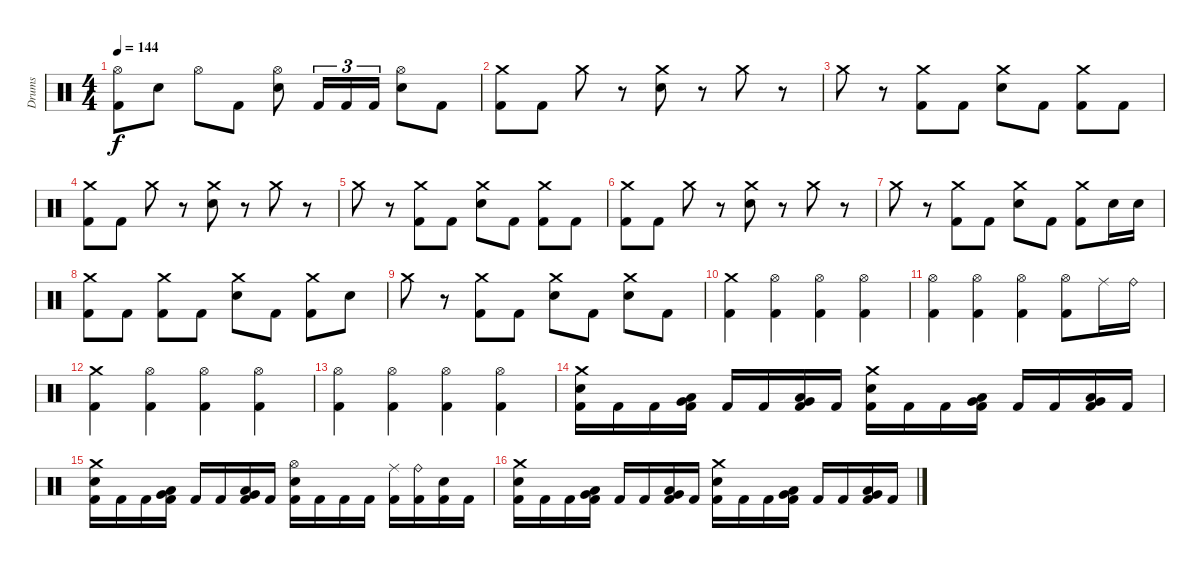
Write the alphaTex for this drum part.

\track ("Drums" "Drums") {instrument percussion}
\staff {score}
\articulation defaults
\ts (4 4)
\tempo 144
\clef neutral
\ks c
("Hi-Hat (open)" "Kick (hit) 2").8{dy f} "Electric Snare (hit)".8 "Hi-Hat (open)".8 "Kick (hit) 2".8 ("Hi-Hat (open)" "Electric Snare (hit)").8 "Kick (hit) 2".16{tu (3 2)} "Kick (hit) 2".16{tu (3 2)} "Kick (hit) 2".16{tu (3 2)} ("Hi-Hat (open)" "Electric Snare (hit)").8 "Kick (hit) 2".8 |
("Crash medium (hit)" "Kick (hit) 2").8 "Kick (hit) 2".8 "Crash medium (hit)".8 r.8 ("Crash medium (hit)" "Electric Snare (hit)").8 r.8 "Crash medium (hit)".8 r.8 |
"Crash medium (hit)".8 r.8 ("Crash medium (hit)" "Kick (hit) 2").8 "Kick (hit) 2".8 ("Crash medium (hit)" "Electric Snare (hit)").8 "Kick (hit) 2".8 ("Crash medium (hit)" "Kick (hit) 2").8 "Kick (hit) 2".8 |
("Crash medium (hit)" "Kick (hit) 2").8 "Kick (hit) 2".8 "Crash medium (hit)".8 r.8 ("Crash medium (hit)" "Electric Snare (hit)").8 r.8 "Crash medium (hit)".8 r.8 |
"Crash medium (hit)".8 r.8 ("Crash medium (hit)" "Kick (hit) 2").8 "Kick (hit) 2".8 ("Crash medium (hit)" "Electric Snare (hit)").8 "Kick (hit) 2".8 ("Crash medium (hit)" "Kick (hit) 2").8 "Kick (hit) 2".8 |
("Crash medium (hit)" "Kick (hit) 2").8 "Kick (hit) 2".8 "Crash medium (hit)".8 r.8 ("Crash medium (hit)" "Electric Snare (hit)").8 r.8 "Crash medium (hit)".8 r.8 |
"Crash medium (hit)".8 r.8 ("Crash medium (hit)" "Kick (hit) 2").8 "Kick (hit) 2".8 ("Crash medium (hit)" "Electric Snare (hit)").8 "Kick (hit) 2".8 ("Crash medium (hit)" "Kick (hit) 2").8 "Electric Snare (hit)".16 "Electric Snare (hit)".16 |
("Crash medium (hit)" "Kick (hit) 2").8 "Kick (hit) 2".8 ("Crash medium (hit)" "Kick (hit) 2").8 "Kick (hit) 2".8 ("Crash medium (hit)" "Electric Snare (hit)").8 "Kick (hit) 2".8 ("Crash medium (hit)" "Kick (hit) 2").8 "Electric Snare (hit)".8 |
"Crash medium (hit)".8 r.8 ("Crash medium (hit)" "Kick (hit) 2").8 "Kick (hit) 2".8 ("Crash medium (hit)" "Electric Snare (hit)").8 "Kick (hit) 2".8 ("Crash medium (hit)" "Electric Snare (hit)").8 "Kick (hit) 2".8 |
("Crash medium (hit)" "Kick (hit) 2").4 ("Hi-Hat (open)" "Kick (hit) 2").4 ("Hi-Hat (open)" "Kick (hit) 2").4 ("Hi-Hat (open)" "Kick (hit) 2").4 |
("Hi-Hat (open)" "Kick (hit) 2").4 ("Hi-Hat (open)" "Kick (hit) 2").4 ("Hi-Hat (open)" "Kick (hit) 2").4 ("Hi-Hat (open)" "Kick (hit) 2").8 "Ride (middle)".16 "Ride (bell)".16 |
("Crash medium (hit)" "Kick (hit) 2").4 ("Hi-Hat (open)" "Kick (hit) 2").4 ("Hi-Hat (open)" "Kick (hit) 2").4 ("Hi-Hat (open)" "Kick (hit) 2").4 |
("Hi-Hat (open)" "Kick (hit) 2").4 ("Hi-Hat (open)" "Kick (hit) 2").4 ("Hi-Hat (open)" "Kick (hit) 2").4 ("Hi-Hat (open)" "Kick (hit) 2").4 |
("Crash medium (hit)" "Electric Snare (hit)" "Kick (hit) 2").16 "Kick (hit) 2".16 "Kick (hit) 2".16 ("Very Low Tom (hit)" "Low Tom (hit)" "Kick (hit) 2").16 "Kick (hit) 2".16 "Kick (hit) 2".16 ("Low Floor Tom (hit)" "Very Low Tom (hit)" "Kick (hit) 2").16 "Kick (hit) 2".16 ("Crash medium (hit)" "Electric Snare (hit)" "Kick (hit) 2").16 "Kick (hit) 2".16 "Kick (hit) 2".16 ("Very Low Tom (hit)" "Low Tom (hit)" "Kick (hit) 2").16 "Kick (hit) 2".16 "Kick (hit) 2".16 ("Low Floor Tom (hit)" "Very Low Tom (hit)" "Kick (hit) 2").16 "Kick (hit) 2".16 |
("Crash medium (hit)" "Electric Snare (hit)" "Kick (hit) 2").16 "Kick (hit) 2".16 "Kick (hit) 2".16 ("Very Low Tom (hit)" "Low Tom (hit)" "Kick (hit) 2").16 "Kick (hit) 2".16 "Kick (hit) 2".16 ("Low Floor Tom (hit)" "Very Low Tom (hit)" "Kick (hit) 2").16 "Kick (hit) 2".16 ("Hi-Hat (open)" "Electric Snare (hit)" "Kick (hit) 2").16 "Kick (hit) 2".16 "Kick (hit) 2".16 "Kick (hit) 2".16 ("Ride (middle)" "Kick (hit) 2").16 ("Ride (bell)" "Kick (hit) 2").16 ("Electric Snare (hit)" "Kick (hit) 2").16 "Kick (hit) 2".16 |
("Crash medium (hit)" "Electric Snare (hit)" "Kick (hit) 2").16 "Kick (hit) 2".16 "Kick (hit) 2".16 ("Very Low Tom (hit)" "Low Tom (hit)" "Kick (hit) 2").16 "Kick (hit) 2".16 "Kick (hit) 2".16 ("Low Floor Tom (hit)" "Very Low Tom (hit)" "Kick (hit) 2").16 "Kick (hit) 2".16 ("Crash medium (hit)" "Electric Snare (hit)" "Kick (hit) 2").16 "Kick (hit) 2".16 "Kick (hit) 2".16 ("Very Low Tom (hit)" "Low Tom (hit)" "Kick (hit) 2").16 "Kick (hit) 2".16 "Kick (hit) 2".16 ("Low Floor Tom (hit)" "Very Low Tom (hit)" "Kick (hit) 2").16 "Kick (hit) 2".16
